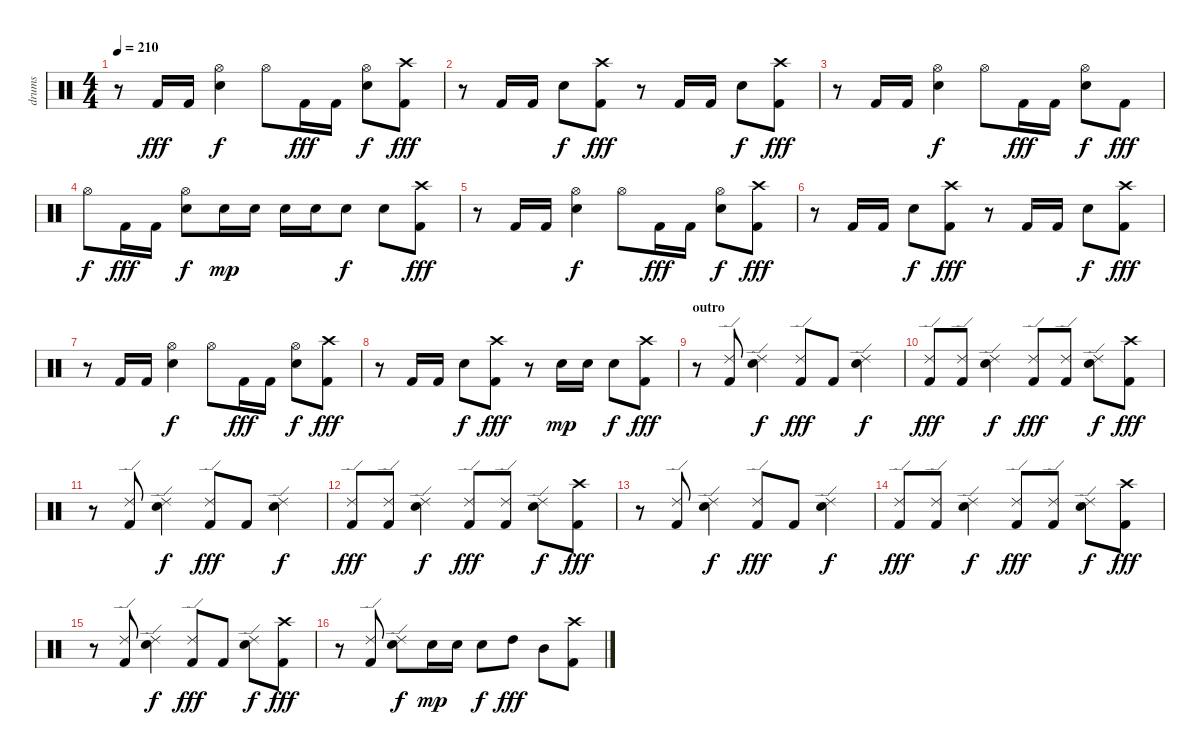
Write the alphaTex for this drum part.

\track ("drums" "drums") {instrument percussion}
\staff {score}
\articulation defaults
\ts (4 4)
\tempo 210
\clef neutral
\ks c
r.8{dy fff} "Kick (hit) 2".16 "Kick (hit) 2".16 ("Hi-Hat (open)" "Snare (hit) 2").4{dy f} "Hi-Hat (open)".8 "Kick (hit) 2".16{dy fff} "Kick (hit) 2".16 ("Hi-Hat (open)" "Snare (hit) 2").8{dy f} ("Crash high (hit)" "Kick (hit) 2").8{dy fff} |
r.8 "Kick (hit) 2".16 "Kick (hit) 2".16 "Snare (hit) 2".8{dy f} ("Crash high (hit)" "Kick (hit) 2").8{dy fff} r.8 "Kick (hit) 2".16 "Kick (hit) 2".16 "Snare (hit) 2".8{dy f} ("Crash high (hit)" "Kick (hit) 2").8{dy fff} |
r.8 "Kick (hit) 2".16 "Kick (hit) 2".16 ("Hi-Hat (open)" "Snare (hit) 2").4{dy f} "Hi-Hat (open)".8 "Kick (hit) 2".16{dy fff} "Kick (hit) 2".16 ("Hi-Hat (open)" "Snare (hit) 2").8{dy f} "Kick (hit) 2".8{dy fff} |
"Hi-Hat (open)".8{dy f} "Kick (hit) 2".16{dy fff} "Kick (hit) 2".16 ("Hi-Hat (open)" "Snare (hit) 2").8{dy f} "Snare (hit) 2".16{dy mp} "Snare (hit) 2".16 "Snare (hit) 2".16 "Snare (hit) 2".16 "Snare (hit) 2".8{dy f} "Snare (hit) 2".8 ("Crash high (hit)" "Kick (hit) 2").8{dy fff} |
r.8 "Kick (hit) 2".16 "Kick (hit) 2".16 ("Hi-Hat (open)" "Snare (hit) 2").4{dy f} "Hi-Hat (open)".8 "Kick (hit) 2".16{dy fff} "Kick (hit) 2".16 ("Hi-Hat (open)" "Snare (hit) 2").8{dy f} ("Crash high (hit)" "Kick (hit) 2").8{dy fff} |
r.8 "Kick (hit) 2".16 "Kick (hit) 2".16 "Snare (hit) 2".8{dy f} ("Crash high (hit)" "Kick (hit) 2").8{dy fff} r.8 "Kick (hit) 2".16 "Kick (hit) 2".16 "Snare (hit) 2".8{dy f} ("Crash high (hit)" "Kick (hit) 2").8{dy fff} |
r.8 "Kick (hit) 2".16 "Kick (hit) 2".16 ("Hi-Hat (open)" "Snare (hit) 2").4{dy f} "Hi-Hat (open)".8 "Kick (hit) 2".16{dy fff} "Kick (hit) 2".16 ("Hi-Hat (open)" "Snare (hit) 2").8{dy f} ("Crash high (hit)" "Kick (hit) 2").8{dy fff} |
r.8 "Kick (hit) 2".16 "Kick (hit) 2".16 "Snare (hit) 2".8{dy f} ("Crash high (hit)" "Kick (hit) 2").8{dy fff} r.8 "Snare (hit) 2".16{dy mp} "Snare (hit) 2".16 "Snare (hit) 2".8{dy f} ("Crash high (hit)" "Kick (hit) 2").8{dy fff} |
\section ("" "outro")
r.8 ("Ride (edge) 2" "Kick (hit) 2").8 ("Ride (edge) 2" "Snare (hit) 2").4{dy f} ("Ride (edge) 2" "Kick (hit) 2").8{dy fff} "Kick (hit) 2".8 ("Ride (edge) 2" "Snare (hit) 2").4{dy f} |
("Ride (edge) 2" "Kick (hit) 2").8{dy fff} ("Ride (edge) 2" "Kick (hit) 2").8 ("Ride (edge) 2" "Snare (hit) 2").4{dy f} ("Ride (edge) 2" "Kick (hit) 2").8{dy fff} ("Ride (edge) 2" "Kick (hit) 2").8 ("Ride (edge) 2" "Snare (hit) 2").8{dy f} ("Crash high (hit)" "Kick (hit) 2").8{dy fff} |
r.8 ("Ride (edge) 2" "Kick (hit) 2").8 ("Ride (edge) 2" "Snare (hit) 2").4{dy f} ("Ride (edge) 2" "Kick (hit) 2").8{dy fff} "Kick (hit) 2".8 ("Ride (edge) 2" "Snare (hit) 2").4{dy f} |
("Ride (edge) 2" "Kick (hit) 2").8{dy fff} ("Ride (edge) 2" "Kick (hit) 2").8 ("Ride (edge) 2" "Snare (hit) 2").4{dy f} ("Ride (edge) 2" "Kick (hit) 2").8{dy fff} ("Ride (edge) 2" "Kick (hit) 2").8 ("Ride (edge) 2" "Snare (hit) 2").8{dy f} ("Crash high (hit)" "Kick (hit) 2").8{dy fff} |
r.8 ("Ride (edge) 2" "Kick (hit) 2").8 ("Ride (edge) 2" "Snare (hit) 2").4{dy f} ("Ride (edge) 2" "Kick (hit) 2").8{dy fff} "Kick (hit) 2".8 ("Ride (edge) 2" "Snare (hit) 2").4{dy f} |
("Ride (edge) 2" "Kick (hit) 2").8{dy fff} ("Ride (edge) 2" "Kick (hit) 2").8 ("Ride (edge) 2" "Snare (hit) 2").4{dy f} ("Ride (edge) 2" "Kick (hit) 2").8{dy fff} ("Ride (edge) 2" "Kick (hit) 2").8 ("Ride (edge) 2" "Snare (hit) 2").8{dy f} ("Crash high (hit)" "Kick (hit) 2").8{dy fff} |
r.8 ("Ride (edge) 2" "Kick (hit) 2").8 ("Ride (edge) 2" "Snare (hit) 2").4{dy f} ("Ride (edge) 2" "Kick (hit) 2").8{dy fff} "Kick (hit) 2".8 ("Ride (edge) 2" "Snare (hit) 2").8{dy f} ("Crash high (hit)" "Kick (hit) 2").8{dy fff} |
r.8 ("Ride (edge) 2" "Kick (hit) 2").8 ("Ride (edge) 2" "Snare (hit) 2").8{dy f} "Snare (hit) 2".16{dy mp} "Snare (hit) 2".16 "Snare (hit) 2".8{dy f} "High Tom (hit)".8{dy fff} "Mid Tom (hit)".8 ("Crash high (hit)" "Kick (hit) 2").8
